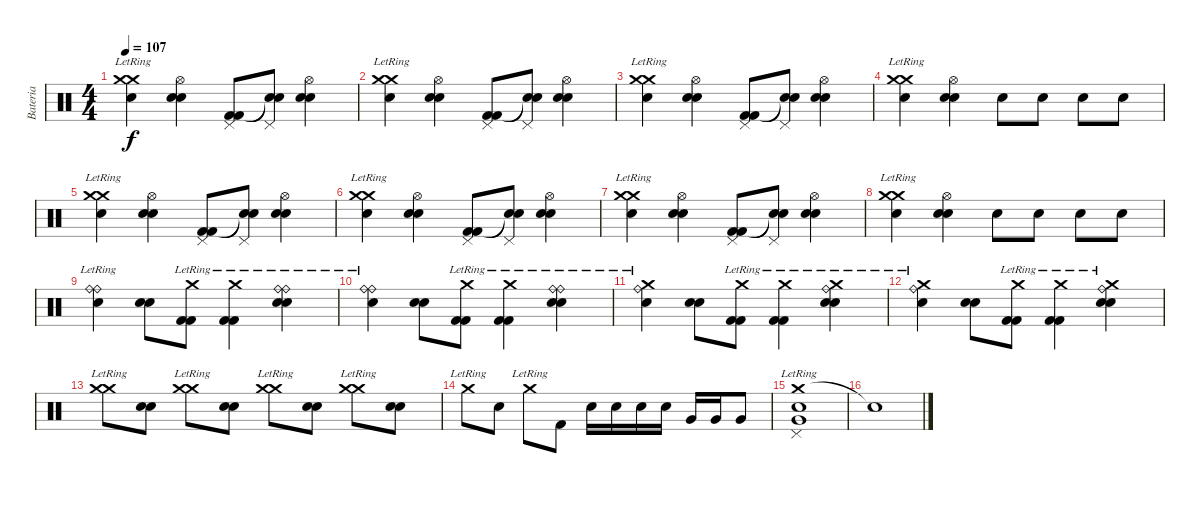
\track ("Bateria" "Bateria") {instrument percussion}
\staff {score}
\articulation defaults
\ts (4 4)
\tempo 107
\clef neutral
\ks c
("Crash medium (hit)"{lr} "Crash medium (hit)"{lr} "Snare (hit) 2").4{dy f} ("Hi-Hat (open)" "Snare (hit) 2" "Snare (hit) 2").4 ("Pedal Hi-Hat (hit)" "Kick (hit) 2" "Kick (hit) 2").8 ("Pedal Hi-Hat (hit)" "Snare (hit)"{t} "Snare (hit)"{t}).8 ("Hi-Hat (open)" "Snare (hit) 2" "Snare (hit) 2").4 |
("Crash medium (hit)"{lr} "Crash medium (hit)"{lr} "Snare (hit) 2").4 ("Hi-Hat (open)" "Snare (hit) 2" "Snare (hit) 2").4 ("Pedal Hi-Hat (hit)" "Kick (hit) 2" "Kick (hit) 2").8 ("Pedal Hi-Hat (hit)" "Snare (hit)"{t} "Snare (hit)"{t}).8 ("Hi-Hat (open)" "Snare (hit) 2" "Snare (hit) 2").4 |
("Crash medium (hit)"{lr} "Crash medium (hit)"{lr} "Snare (hit) 2").4 ("Hi-Hat (open)" "Snare (hit) 2" "Snare (hit) 2").4 ("Pedal Hi-Hat (hit)" "Kick (hit) 2" "Kick (hit) 2").8 ("Pedal Hi-Hat (hit)" "Snare (hit)"{t} "Snare (hit)"{t}).8 ("Hi-Hat (open)" "Snare (hit) 2" "Snare (hit) 2").4 |
("Crash medium (hit)"{lr} "Crash medium (hit)"{lr} "Snare (hit) 2").4 ("Hi-Hat (open)" "Snare (hit) 2" "Snare (hit) 2").4 "Snare (hit) 2".8 "Snare (hit) 2".8 "Snare (hit) 2".8 "Snare (hit) 2".8 |
("Crash medium (hit)"{lr} "Crash medium (hit)"{lr} "Snare (hit) 2").4 ("Hi-Hat (open)" "Snare (hit) 2" "Snare (hit) 2").4 ("Pedal Hi-Hat (hit)" "Kick (hit) 2" "Kick (hit) 2").8 ("Pedal Hi-Hat (hit)" "Snare (hit)"{t} "Snare (hit)"{t}).8 ("Hi-Hat (open)" "Snare (hit) 2" "Snare (hit) 2").4 |
("Crash medium (hit)"{lr} "Crash medium (hit)"{lr} "Snare (hit) 2").4 ("Hi-Hat (open)" "Snare (hit) 2" "Snare (hit) 2").4 ("Pedal Hi-Hat (hit)" "Kick (hit) 2" "Kick (hit) 2").8 ("Pedal Hi-Hat (hit)" "Snare (hit)"{t} "Snare (hit)"{t}).8 ("Hi-Hat (open)" "Snare (hit) 2" "Snare (hit) 2").4 |
("Crash medium (hit)"{lr} "Crash medium (hit)"{lr} "Snare (hit) 2").4 ("Hi-Hat (open)" "Snare (hit) 2" "Snare (hit) 2").4 ("Pedal Hi-Hat (hit)" "Kick (hit) 2" "Kick (hit) 2").8 ("Pedal Hi-Hat (hit)" "Snare (hit)"{t} "Snare (hit)"{t}).8 ("Hi-Hat (open)" "Snare (hit) 2" "Snare (hit) 2").4 |
("Crash medium (hit)"{lr} "Crash medium (hit)"{lr} "Snare (hit) 2").4 ("Hi-Hat (open)" "Snare (hit) 2" "Snare (hit) 2").4 "Snare (hit) 2".8 "Snare (hit) 2".8 "Snare (hit) 2".8 "Snare (hit) 2".8 |
("Ride (bell)"{lr} "Snare (hit) 2" "Ride (bell)").4 ("Snare (hit) 2" "Snare (hit) 2").8 ("Crash medium (hit)"{lr} "Kick (hit) 2" "Kick (hit) 2").8 ("Crash medium (hit)"{lr} "Kick (hit) 2" "Kick (hit) 2").4 ("Ride (bell)"{lr} "Snare (hit) 2" "Snare (hit) 2" "Ride (bell)").4 |
("Ride (bell)"{lr} "Snare (hit) 2" "Ride (bell)").4 ("Snare (hit) 2" "Snare (hit) 2").8 ("Crash medium (hit)"{lr} "Kick (hit) 2" "Kick (hit) 2").8 ("Crash medium (hit)"{lr} "Kick (hit) 2" "Kick (hit) 2").4 ("Ride (bell)"{lr} "Snare (hit) 2" "Snare (hit) 2" "Ride (bell)").4 |
("Crash medium (hit)"{lr} "Snare (hit) 2" "Ride (bell)").4 ("Snare (hit) 2" "Snare (hit) 2").8 ("Crash medium (hit)"{lr} "Kick (hit) 2" "Kick (hit) 2").8 ("Crash medium (hit)"{lr} "Kick (hit) 2" "Kick (hit) 2").4 ("Crash medium (hit)"{lr} "Snare (hit) 2" "Snare (hit) 2" "Ride (bell)").4 |
("Crash medium (hit)"{lr} "Snare (hit) 2" "Ride (bell)"{lr}).4 ("Snare (hit) 2" "Snare (hit) 2").8 ("Crash medium (hit)"{lr} "Kick (hit) 2" "Kick (hit) 2").8 ("Crash medium (hit)"{lr} "Kick (hit) 2" "Kick (hit) 2").4 ("Crash medium (hit)"{lr} "Snare (hit) 2" "Snare (hit) 2" "Ride (bell)"{lr}).4 |
("Crash medium (hit)"{lr} "Crash medium (hit)"{lr}).8 ("Snare (hit) 2" "Snare (hit) 2").8 ("Crash medium (hit)"{lr} "Crash medium (hit)"{lr}).8 ("Snare (hit) 2" "Snare (hit) 2").8 ("Crash medium (hit)"{lr} "Crash medium (hit)"{lr}).8 ("Snare (hit) 2" "Snare (hit) 2").8 ("Crash medium (hit)"{lr} "Crash medium (hit)"{lr}).8 ("Snare (hit) 2" "Snare (hit) 2").8 |
"Crash medium (hit)"{lr}.8 "Snare (hit) 2".8 "Crash medium (hit)"{lr}.8 "Kick (hit) 2".8 "Snare (hit) 2".16 "Snare (hit) 2".16 "Snare (hit) 2".16 "Snare (hit) 2".16 "Very Low Tom (hit)".16 "Very Low Tom (hit)".16 "Very Low Tom (hit)".8 |
("Crash medium (hit)"{lr} "Pedal Hi-Hat (hit)"{lr} "Snare (hit) 2"{lr} "Very Low Tom (hit)"{lr}).1 |
"Snare (hit)"{t}.1
